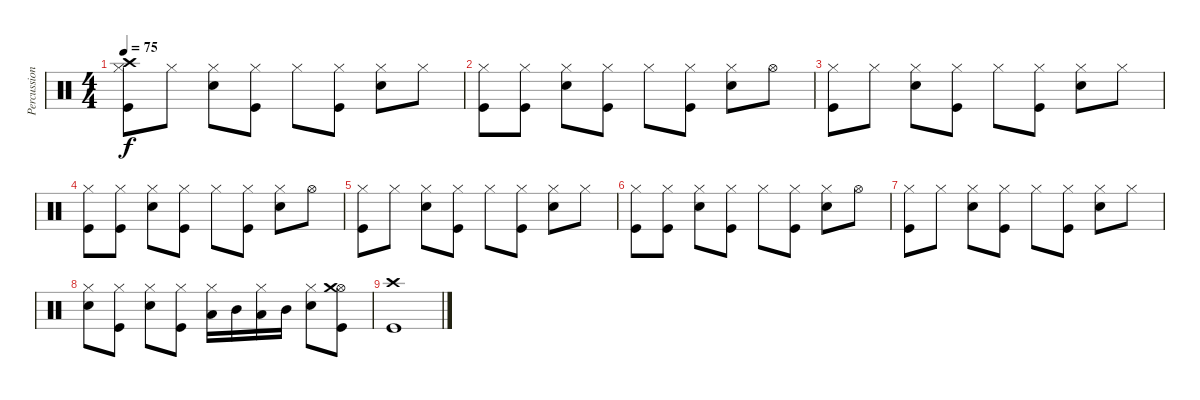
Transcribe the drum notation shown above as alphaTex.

\track ("Percussion" "Percussion") {instrument percussion}
\staff {score}
\articulation defaults
\ts (4 4)
\tempo 75
\clef neutral
\ks c
("Hi-Hat (closed)" "Kick (hit)" "Crash high (hit)").8{dy f} "Hi-Hat (closed)".8 ("Hi-Hat (closed)" "Electric Snare (hit)").8 ("Hi-Hat (closed)" "Kick (hit)").8 "Hi-Hat (closed)".8 ("Hi-Hat (closed)" "Kick (hit)").8 ("Hi-Hat (closed)" "Electric Snare (hit)").8 "Hi-Hat (closed)".8 |
("Hi-Hat (closed)" "Kick (hit)").8 ("Hi-Hat (closed)" "Kick (hit)").8 ("Hi-Hat (closed)" "Electric Snare (hit)").8 ("Hi-Hat (closed)" "Kick (hit)").8 "Hi-Hat (closed)".8 ("Hi-Hat (closed)" "Kick (hit)").8 ("Hi-Hat (closed)" "Electric Snare (hit)").8 "Hi-Hat (open)".8 |
("Hi-Hat (closed)" "Kick (hit)").8 "Hi-Hat (closed)".8 ("Hi-Hat (closed)" "Electric Snare (hit)").8 ("Hi-Hat (closed)" "Kick (hit)").8 "Hi-Hat (closed)".8 ("Hi-Hat (closed)" "Kick (hit)").8 ("Hi-Hat (closed)" "Electric Snare (hit)").8 "Hi-Hat (closed)".8 |
("Hi-Hat (closed)" "Kick (hit)").8 ("Hi-Hat (closed)" "Kick (hit)").8 ("Hi-Hat (closed)" "Electric Snare (hit)").8 ("Hi-Hat (closed)" "Kick (hit)").8 "Hi-Hat (closed)".8 ("Hi-Hat (closed)" "Kick (hit)").8 ("Hi-Hat (closed)" "Electric Snare (hit)").8 "Hi-Hat (open)".8 |
("Hi-Hat (closed)" "Kick (hit)").8 "Hi-Hat (closed)".8 ("Hi-Hat (closed)" "Electric Snare (hit)").8 ("Hi-Hat (closed)" "Kick (hit)").8 "Hi-Hat (closed)".8 ("Hi-Hat (closed)" "Kick (hit)").8 ("Hi-Hat (closed)" "Electric Snare (hit)").8 "Hi-Hat (closed)".8 |
("Hi-Hat (closed)" "Kick (hit)").8 ("Hi-Hat (closed)" "Kick (hit)").8 ("Hi-Hat (closed)" "Electric Snare (hit)").8 ("Hi-Hat (closed)" "Kick (hit)").8 "Hi-Hat (closed)".8 ("Hi-Hat (closed)" "Kick (hit)").8 ("Hi-Hat (closed)" "Electric Snare (hit)").8 "Hi-Hat (open)".8 |
("Hi-Hat (closed)" "Kick (hit)").8 "Hi-Hat (closed)".8 ("Hi-Hat (closed)" "Electric Snare (hit)").8 ("Hi-Hat (closed)" "Kick (hit)").8 "Hi-Hat (closed)".8 ("Hi-Hat (closed)" "Kick (hit)").8 ("Hi-Hat (closed)" "Electric Snare (hit)").8 "Hi-Hat (closed)".8 |
("Hi-Hat (closed)" "Electric Snare (hit)").8 ("Hi-Hat (closed)" "Kick (hit)").8 ("Hi-Hat (closed)" "Electric Snare (hit)").8 ("Hi-Hat (closed)" "Kick (hit)").8 ("Hi-Hat (closed)" "Low Tom (hit)").16 "Mid Tom (hit)".16 ("Hi-Hat (closed)" "Low Tom (hit)").16 "Mid Tom (hit)".16 ("Hi-Hat (closed)" "Electric Snare (hit)").8 ("Hi-Hat (open)" "Kick (hit)" "Crash medium (hit)").8 |
("Crash high (hit)" "Kick (hit)").1
